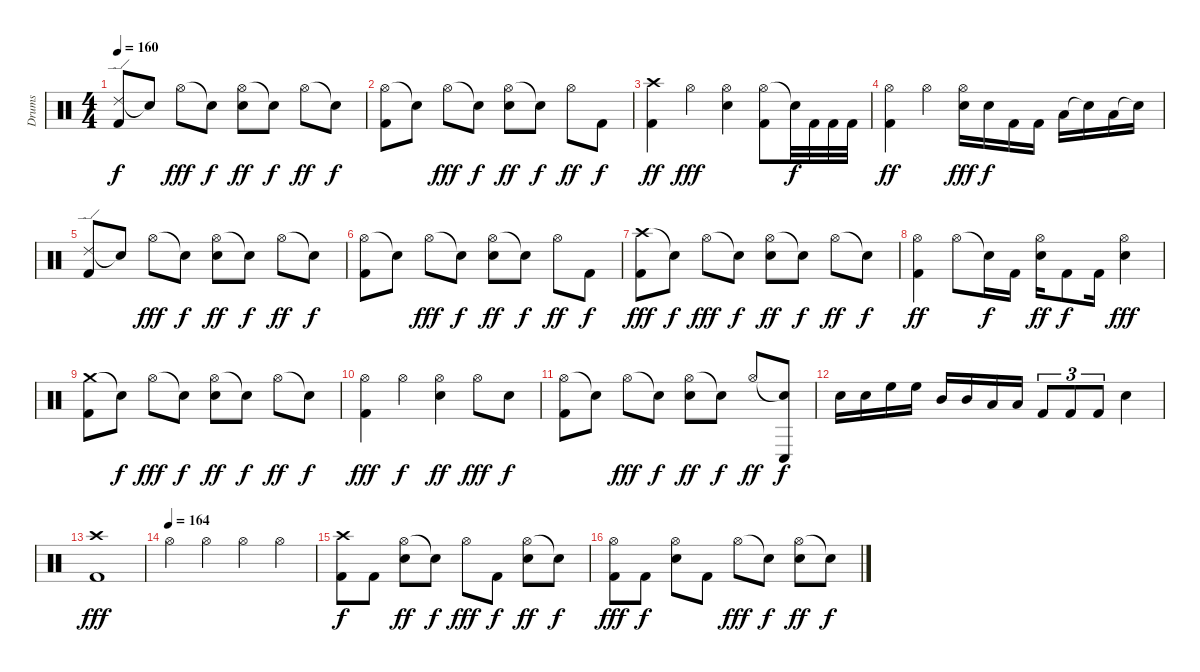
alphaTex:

\track ("Drums" "Drums") {instrument percussion}
\staff {score}
\articulation defaults
\ts (4 4)
\tempo 160
\clef neutral
\ks c
("Ride (edge) 2" "Kick (hit) 2").8{dy f} "Snare (hit)"{t}.8 "Hi-Hat (open)".8{dy fff} "Snare (hit)"{t}.8{dy f} ("Hi-Hat (open)" "Electric Snare (hit)").8{dy ff} "Snare (hit)"{t}.8{dy f} "Hi-Hat (open)".8{dy ff} "Snare (hit)"{t}.8{dy f} |
("Hi-Hat (open)" "Kick (hit) 2").8 "Snare (hit)"{t}.8 "Hi-Hat (open)".8{dy fff} "Snare (hit)"{t}.8{dy f} ("Hi-Hat (open)" "Electric Snare (hit)").8{dy ff} "Snare (hit)"{t}.8{dy f} "Hi-Hat (open)".8{dy ff} "Kick (hit) 2".8{dy f} |
("Crash high (hit)" "Kick (hit) 2").4{dy ff} "Hi-Hat (open)".4{dy fff} ("Hi-Hat (open)" "Electric Snare (hit)").4 ("Hi-Hat (open)" "Kick (hit) 2").8 "Snare (hit)"{t}.32{dy f} "Kick (hit) 2".32 "Kick (hit) 2".32 "Kick (hit) 2".32 |
("Hi-Hat (open)" "Kick (hit) 2").4{dy ff} "Hi-Hat (open)".4 ("Hi-Hat (open)" "Electric Snare (hit)").16{dy fff} "Electric Snare (hit)".16{dy f} "Kick (hit) 2".16 "Kick (hit) 2".16 "Low Tom (hit)".16 "Snare (hit)"{t}.16 "Low Floor Tom (hit)".16 "Snare (hit)"{t}.16 |
("Ride (edge) 2" "Kick (hit) 2").8 "Snare (hit)"{t}.8 "Hi-Hat (open)".8{dy fff} "Snare (hit)"{t}.8{dy f} ("Hi-Hat (open)" "Electric Snare (hit)").8{dy ff} "Snare (hit)"{t}.8{dy f} "Hi-Hat (open)".8{dy ff} "Snare (hit)"{t}.8{dy f} |
("Hi-Hat (open)" "Kick (hit) 2").8 "Snare (hit)"{t}.8 "Hi-Hat (open)".8{dy fff} "Snare (hit)"{t}.8{dy f} ("Hi-Hat (open)" "Electric Snare (hit)").8{dy ff} "Snare (hit)"{t}.8{dy f} "Hi-Hat (open)".8{dy ff} "Kick (hit) 2".8{dy f} |
("Crash high (hit)" "Kick (hit) 2").8{dy fff} "Snare (hit)"{t}.8{dy f} "Hi-Hat (open)".8{dy fff} "Snare (hit)"{t}.8{dy f} ("Hi-Hat (open)" "Electric Snare (hit)").8{dy ff} "Snare (hit)"{t}.8{dy f} "Hi-Hat (open)".8{dy ff} "Snare (hit)"{t}.8{dy f} |
("Hi-Hat (open)" "Kick (hit) 2").4{dy ff} "Hi-Hat (open)".8 "Snare (hit)"{t}.16{dy f} "Kick (hit) 2".16 ("Hi-Hat (open)" "Electric Snare (hit)").16{dy ff} "Kick (hit) 2".8{dy f} "Kick (hit) 2".16 ("Hi-Hat (open)" "Electric Snare (hit)").4{dy fff} |
("Crash medium (hit)" "Kick (hit) 2").8 "Snare (hit)"{t}.8{dy f} "Hi-Hat (open)".8{dy fff} "Snare (hit)"{t}.8{dy f} ("Hi-Hat (open)" "Electric Snare (hit)").8{dy ff} "Snare (hit)"{t}.8{dy f} "Hi-Hat (open)".8{dy ff} "Snare (hit)"{t}.8{dy f} |
("Hi-Hat (open)" "Kick (hit) 2").4{dy fff} "Hi-Hat (open)".4{dy f} ("Hi-Hat (open)" "Electric Snare (hit)").4{dy ff} "Hi-Hat (open)".8{dy fff} "Electric Snare (hit)".8{dy f} |
("Hi-Hat (open)" "Kick (hit) 2").8 "Snare (hit)"{t}.8 "Hi-Hat (open)".8{dy fff} "Snare (hit)"{t}.8{dy f} ("Hi-Hat (open)" "Electric Snare (hit)").8{dy ff} "Snare (hit)"{t}.8{dy f} "Hi-Hat (open)".8{dy ff} ("Snare (hit)"{t} "Conga low (hit)").8{dy f} |
"Electric Snare (hit)".16 "Electric Snare (hit)".16 "High Floor Tom (hit)".16 "High Floor Tom (hit)".16 "Mid Tom (hit)".16 "Mid Tom (hit)".16 "Low Floor Tom (hit)".16 "Low Floor Tom (hit)".16 "Kick (hit) 2".8{tu (3 2)} "Kick (hit) 2".8{tu (3 2)} "Kick (hit) 2".8{tu (3 2)} "Snare (hit) 2".4 |
("Crash high (hit)" "Kick (hit) 2").1{dy fff} |
\tempo (164)
"Hi-Hat (open)".4 "Hi-Hat (open)".4 "Hi-Hat (open)".4 "Hi-Hat (open)".4 |
("Crash high (hit)" "Kick (hit) 2").8{dy f} "Kick (hit) 2".8 ("Hi-Hat (open)" "Electric Snare (hit)").8{dy ff} "Snare (hit)"{t}.8{dy f} "Hi-Hat (open)".8{dy fff} "Kick (hit) 2".8{dy f} ("Hi-Hat (open)" "Electric Snare (hit)").8{dy ff} "Snare (hit)"{t}.8{dy f} |
("Hi-Hat (open)" "Kick (hit) 2").8{dy fff} "Kick (hit) 2".8{dy f} ("Hi-Hat (open)" "Electric Snare (hit)").8 "Kick (hit) 2".8 "Hi-Hat (open)".8{dy fff} "Snare (hit)"{t}.8{dy f} ("Hi-Hat (open)" "Electric Snare (hit)").8{dy ff} "Snare (hit)"{t}.8{dy f}
